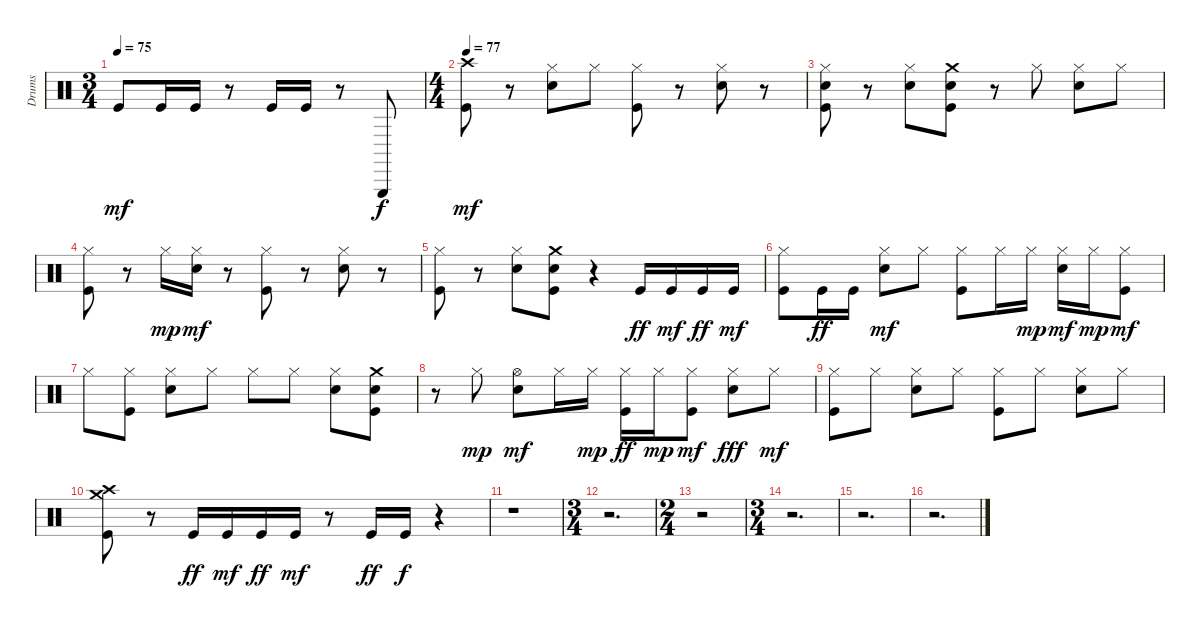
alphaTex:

\track ("Drums" "Drums") {instrument percussion}
\staff {score}
\articulation defaults
\ts (3 4)
\tempo 75
\clef neutral
\ks c "Kick (hit)".8{dy mf} "Kick (hit)".16 "Kick (hit)".16
r.8 "Kick (hit)".16 "Kick (hit)".16 r.8 "Triangle (hit)".8{dy f} |
\ts (4 4)
\tempo 77
("Kick (hit)" "Crash high (hit)").8{dy mf} r.8 ("Electric Snare (hit)" "Hi-Hat (closed)").8 "Hi-Hat (closed)".8 ("Kick (hit)" "Hi-Hat (closed)").8 r.8 ("Electric Snare (hit)" "Hi-Hat (closed)").8 r.8 |
("Kick (hit)" "Electric Snare (hit)" "Hi-Hat (closed)").8 r.8 ("Electric Snare (hit)" "Hi-Hat (closed)").8 ("Kick (hit)" "Electric Snare (hit)" "Crash medium (hit)").8 r.8 "Hi-Hat (closed)".8 ("Electric Snare (hit)" "Hi-Hat (closed)").8 "Hi-Hat (closed)".8 |
("Kick (hit)" "Hi-Hat (closed)").8 r.8 "Hi-Hat (closed)".16{dy mp} ("Electric Snare (hit)" "Hi-Hat (closed)").16{dy mf} r.8 ("Kick (hit)" "Hi-Hat (closed)").8 r.8 ("Electric Snare (hit)" "Hi-Hat (closed)").8 r.8 |
("Kick (hit)" "Hi-Hat (closed)").8 r.8 ("Electric Snare (hit)" "Hi-Hat (closed)").8 ("Kick (hit)" "Electric Snare (hit)" "Crash medium (hit)").8 r.4 "Kick (hit)".16{dy ff} "Kick (hit)".16{dy mf} "Kick (hit)".16{dy ff} "Kick (hit)".16{dy mf} |
("Kick (hit)" "Hi-Hat (closed)").8 "Kick (hit)".16{dy ff} "Kick (hit)".16 ("Electric Snare (hit)" "Hi-Hat (closed)").8{dy mf} "Hi-Hat (closed)".8 ("Kick (hit)" "Hi-Hat (closed)").8 "Hi-Hat (closed)".16 "Hi-Hat (closed)".16{dy mp} ("Electric Snare (hit)" "Hi-Hat (closed)").16{dy mf} "Hi-Hat (closed)".16{dy mp} ("Kick (hit)" "Hi-Hat (closed)").8{dy mf} |
"Hi-Hat (closed)".8 ("Kick (hit)" "Hi-Hat (closed)").8 ("Electric Snare (hit)" "Hi-Hat (closed)").8 "Hi-Hat (closed)".8 "Hi-Hat (closed)".8 "Hi-Hat (closed)".8 ("Electric Snare (hit)" "Hi-Hat (closed)").8 ("Kick (hit)" "Electric Snare (hit)" "Crash medium (hit)").8 |
r.8 "Hi-Hat (closed)".8{dy mp} ("Electric Snare (hit)" "Hi-Hat (open)").8{dy mf} "Hi-Hat (closed)".16 "Hi-Hat (closed)".16{dy mp} ("Kick (hit)" "Hi-Hat (closed)").16{dy ff} "Hi-Hat (closed)".16{dy mp} ("Kick (hit)" "Hi-Hat (closed)").8{dy mf} ("Electric Snare (hit)" "Hi-Hat (closed)").8{dy fff} "Hi-Hat (closed)".8{dy mf} |
("Kick (hit)" "Hi-Hat (closed)").8 "Hi-Hat (closed)".8 ("Electric Snare (hit)" "Hi-Hat (closed)").8 "Hi-Hat (closed)".8 ("Kick (hit)" "Hi-Hat (closed)").8 "Hi-Hat (closed)".8 ("Electric Snare (hit)" "Hi-Hat (closed)").8 "Hi-Hat (closed)".8 |
("Kick (hit)" "Crash high (hit)" "Crash medium (hit)").8 r.8 "Kick (hit)".16{dy ff} "Kick (hit)".16{dy mf} "Kick (hit)".16{dy ff} "Kick (hit)".16{dy mf} r.8 "Kick (hit)".16{dy ff} "Kick (hit)".16{dy f} r.4 |
r.1 |
\ts (3 4)
r.2{d} |
\ts (2 4)
r.2 |
\ts (3 4)
r.2{d} |
r.2{d} |
r.2{d}
